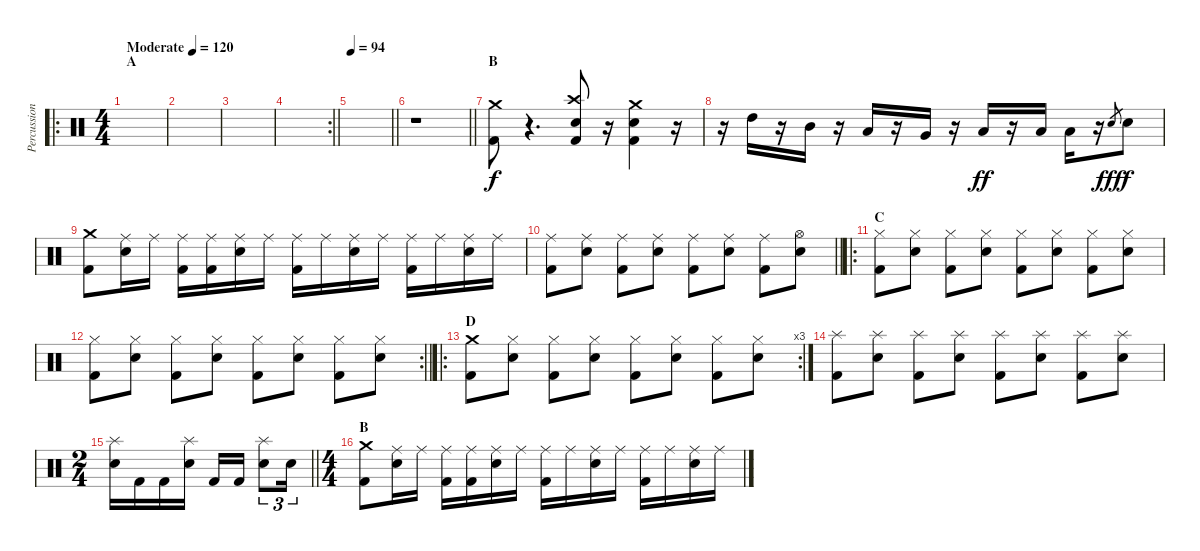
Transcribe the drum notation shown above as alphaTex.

\track ("Percussion" "Percussion") {instrument percussion}
\staff {score}
\articulation defaults
\ro
\ts (4 4)
\section ("" "A")
\tempo (120 "Moderate")
\clef neutral
\ks c
|
|
|
\rc 2
\barLineRight lightlight
|
\section ("" "")
\tempo 94
\barLineRight lightlight
|
\barLineRight lightlight
r.1 |
\section ("" "B")
("Crash medium (hit)" "Kick (hit) 2").8 r.4{d} ("Crash high (hit)" "Snare (hit) 2" "Kick (hit) 2").8{dy f} r.16 ("Crash medium (hit)" "Snare (hit) 2" "Kick (hit) 2").4 r.16 |
r.16 "High Tom (hit)".16 r.16 "Mid Tom (hit)".16 r.16 "Low Tom (hit)".16 r.16 "Very Low Tom (hit)".16 r.16 "Low Floor Tom (hit)".16{dy ff} r.16 "Low Floor Tom (hit)".16 "Low Floor Tom (hit)".16 r.16 "Snare (hit) 2".8{gr dy fff} "Snare (hit) 2".8{dy f} |
("Crash medium (hit)" "Kick (hit) 2").8 ("Ride (middle)" "Snare (hit) 2").16 "Ride (middle)".16 ("Ride (middle)" "Kick (hit) 2").16 ("Ride (middle)" "Kick (hit) 2").16 ("Ride (middle)" "Snare (hit) 2").16 "Ride (middle)".16 ("Ride (middle)" "Kick (hit) 2").16 "Ride (middle)".16 ("Ride (middle)" "Snare (hit) 2").16 "Ride (middle)".16 ("Ride (middle)" "Kick (hit) 2").16 "Ride (middle)".16 ("Ride (middle)" "Snare (hit) 2").16 "Ride (middle)".16 |
\barLineRight lightlight
("Ride (middle)" "Kick (hit) 2").8 ("Ride (middle)" "Snare (hit) 2").8 ("Ride (middle)" "Kick (hit) 2").8 ("Ride (middle)" "Snare (hit) 2").8 ("Ride (middle)" "Kick (hit) 2").8 ("Ride (middle)" "Snare (hit) 2").8 ("Ride (middle)" "Kick (hit) 2").8 ("Hi-Hat (open)" "Snare (hit) 2").8 |
\ro
\section ("" "C")
("Hi-Hat (closed)" "Kick (hit) 2").8 ("Hi-Hat (closed)" "Snare (hit) 2").8 ("Hi-Hat (closed)" "Kick (hit) 2").8 ("Hi-Hat (closed)" "Snare (hit) 2").8 ("Hi-Hat (closed)" "Kick (hit) 2").8 ("Hi-Hat (closed)" "Snare (hit) 2").8 ("Hi-Hat (closed)" "Kick (hit) 2").8 ("Hi-Hat (closed)" "Snare (hit) 2").8 |
\rc 2
\barLineRight lightlight
("Hi-Hat (closed)" "Kick (hit) 2").8 ("Hi-Hat (closed)" "Snare (hit) 2").8 ("Hi-Hat (closed)" "Kick (hit) 2").8 ("Hi-Hat (closed)" "Snare (hit) 2").8 ("Hi-Hat (closed)" "Kick (hit) 2").8 ("Hi-Hat (closed)" "Snare (hit) 2").8 ("Hi-Hat (closed)" "Kick (hit) 2").8 ("Hi-Hat (closed)" "Snare (hit) 2").8 |
\ro
\rc 3
\section ("" "D")
("Crash medium (hit)" "Kick (hit) 2").8 ("Hi-Hat (closed)" "Snare (hit) 2").8 ("Hi-Hat (closed)" "Kick (hit) 2").8 ("Hi-Hat (closed)" "Snare (hit) 2").8 ("Hi-Hat (closed)" "Kick (hit) 2").8 ("Hi-Hat (closed)" "Snare (hit) 2").8 ("Hi-Hat (closed)" "Kick (hit) 2").8 ("Hi-Hat (closed)" "Snare (hit) 2").8 |
("Splash (hit)" "Kick (hit) 2").8 ("Splash (hit)" "Snare (hit) 2").8 ("Splash (hit)" "Kick (hit) 2").8 ("Splash (hit)" "Snare (hit) 2").8 ("Splash (hit)" "Kick (hit) 2").8 ("Splash (hit)" "Snare (hit) 2").8 ("Splash (hit)" "Kick (hit) 2").8 ("Splash (hit)" "Snare (hit) 2").8 |
\ts (2 4)
\barLineRight lightlight
("Splash (hit)" "Snare (hit) 2").16 "Kick (hit) 2".16 "Kick (hit) 2".16 ("Splash (hit)" "Snare (hit) 2").16 "Kick (hit) 2".16 "Kick (hit) 2".16 ("Splash (hit)" "Snare (hit) 2").8{tu (3 2)} "Snare (hit) 2".16{tu (3 2)} |
\ts (4 4)
\section ("" "B")
("Crash medium (hit)" "Kick (hit) 2").8 ("Ride (middle)" "Snare (hit) 2").16 "Ride (middle)".16 ("Ride (middle)" "Kick (hit) 2").16 ("Ride (middle)" "Kick (hit) 2").16 ("Ride (middle)" "Snare (hit) 2").16 "Ride (middle)".16 ("Ride (middle)" "Kick (hit) 2").16 "Ride (middle)".16 ("Ride (middle)" "Snare (hit) 2").16 "Ride (middle)".16 ("Ride (middle)" "Kick (hit) 2").16 "Ride (middle)".16 ("Ride (middle)" "Snare (hit) 2").16 "Ride (middle)".16
